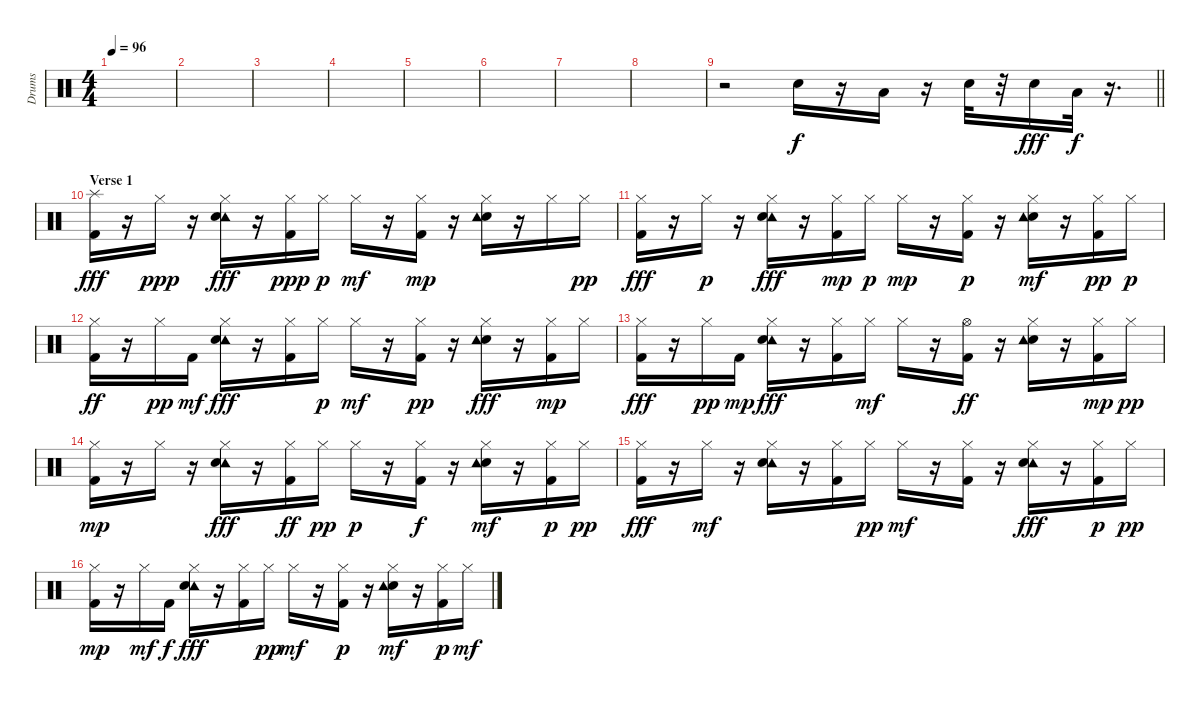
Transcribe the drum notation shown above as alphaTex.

\track ("Drums" "Drums") {instrument percussion}
\staff {score}
\articulation defaults
\ts (4 4)
\tempo 96
\clef neutral
\ks c
|
|
|
|
|
|
|
|
\barLineRight lightlight
r.2 "Electric Snare (hit)".16 r.16 "Low Tom (hit)".16 r.16 "Electric Snare (hit)".32{dy f} r.32 "Electric Snare (hit)".16{dy fff} "Low Tom (hit)".32{dy f} r.16{d} |
\section ("" "Verse 1")
("Kick (hit) 2" "Splash (hit)").16{dy fff} r.16 "Hi-Hat (closed)".16{dy ppp} r.16 ("Hi-Hat (closed)" "Tambourine (hit)" "Electric Snare (hit)").16{dy fff} r.16 ("Kick (hit) 2" "Hi-Hat (closed)").16{dy ppp} "Hi-Hat (closed)".16{dy p} "Hi-Hat (closed)".16{dy mf} r.16 ("Kick (hit) 2" "Hi-Hat (closed)").16{dy mp} r.16 ("Electric Snare (hit)" "Tambourine (hit)" "Hi-Hat (closed)").16 r.16 "Hi-Hat (closed)".16 "Hi-Hat (closed)".16{dy pp} |
("Hi-Hat (closed)" "Kick (hit) 2").16{dy fff} r.16 "Hi-Hat (closed)".16{dy p} r.16 ("Tambourine (hit)" "Electric Snare (hit)" "Hi-Hat (closed)").16{dy fff} r.16 ("Kick (hit) 2" "Hi-Hat (closed)").16{dy mp} "Hi-Hat (closed)".16{dy p} "Hi-Hat (closed)".16{dy mp} r.16 ("Kick (hit) 2" "Hi-Hat (closed)").16{dy p} r.16 ("Electric Snare (hit)" "Tambourine (hit)" "Hi-Hat (closed)").16{dy mf} r.16 ("Hi-Hat (closed)" "Kick (hit) 2").16{dy pp} "Hi-Hat (closed)".16{dy p} |
("Hi-Hat (closed)" "Kick (hit) 2").16{dy ff} r.16 "Hi-Hat (closed)".16{dy pp} "Kick (hit) 2".16{dy mf} ("Hi-Hat (closed)" "Tambourine (hit)" "Electric Snare (hit)").16{dy fff} r.16 ("Hi-Hat (closed)" "Kick (hit) 2").16 "Hi-Hat (closed)".16{dy p} "Hi-Hat (closed)".16{dy mf} r.16 ("Kick (hit) 2" "Hi-Hat (closed)").16{dy pp} r.16 ("Electric Snare (hit)" "Tambourine (hit)" "Hi-Hat (closed)").16{dy fff} r.16 ("Kick (hit) 2" "Hi-Hat (closed)").16{dy mp} "Hi-Hat (closed)".16 |
("Kick (hit) 2" "Hi-Hat (closed)").16{dy fff} r.16 "Hi-Hat (closed)".16{dy pp} "Kick (hit) 2".16{dy mp} ("Tambourine (hit)" "Electric Snare (hit)" "Hi-Hat (closed)").16{dy fff} r.16 ("Hi-Hat (closed)" "Kick (hit) 2").16 "Hi-Hat (closed)".16{dy mf} "Hi-Hat (closed)".16 r.16 ("Kick (hit) 2" "Hi-Hat (open)").16{dy ff} r.16 ("Electric Snare (hit)" "Tambourine (hit)" "Hi-Hat (closed)").16 r.16 ("Kick (hit) 2" "Hi-Hat (closed)").16{dy mp} "Hi-Hat (closed)".16{dy pp} |
("Kick (hit) 2" "Hi-Hat (closed)").16{dy mp} r.16 "Hi-Hat (closed)".16 r.16 ("Hi-Hat (closed)" "Tambourine (hit)" "Electric Snare (hit)").16{dy fff} r.16 ("Hi-Hat (closed)" "Kick (hit) 2").16{dy ff} "Hi-Hat (closed)".16{dy pp} "Hi-Hat (closed)".16{dy p} r.16 ("Kick (hit) 2" "Hi-Hat (closed)").16{dy f} r.16 ("Electric Snare (hit)" "Tambourine (hit)" "Hi-Hat (closed)").16{dy mf} r.16 ("Kick (hit) 2" "Hi-Hat (closed)").16{dy p} "Hi-Hat (closed)".16{dy pp} |
("Hi-Hat (closed)" "Kick (hit) 2").16{dy fff} r.16 "Hi-Hat (closed)".16{dy mf} r.16 ("Tambourine (hit)" "Electric Snare (hit)" "Hi-Hat (closed)").16 r.16 ("Kick (hit) 2" "Hi-Hat (closed)").16 "Hi-Hat (closed)".16{dy pp} "Hi-Hat (closed)".16{dy mf} r.16 ("Kick (hit) 2" "Hi-Hat (closed)").16 r.16 ("Tambourine (hit)" "Electric Snare (hit)" "Hi-Hat (closed)").16{dy fff} r.16 ("Hi-Hat (closed)" "Kick (hit) 2").16{dy p} "Hi-Hat (closed)".16{dy pp} |
("Kick (hit) 2" "Hi-Hat (closed)").16{dy mp} r.16 "Hi-Hat (closed)".16{dy mf} "Kick (hit) 2".16{dy f} ("Hi-Hat (closed)" "Tambourine (hit)" "Electric Snare (hit)").16{dy fff} r.16 ("Hi-Hat (closed)" "Kick (hit) 2").16 "Hi-Hat (closed)".16{dy pp} "Hi-Hat (closed)".16{dy mf} r.16 ("Kick (hit) 2" "Hi-Hat (closed)").16{dy p} r.16 ("Electric Snare (hit)" "Tambourine (hit)" "Hi-Hat (closed)").16{dy mf} r.16 ("Hi-Hat (closed)" "Kick (hit) 2").16{dy p} "Hi-Hat (closed)".16{dy mf}
